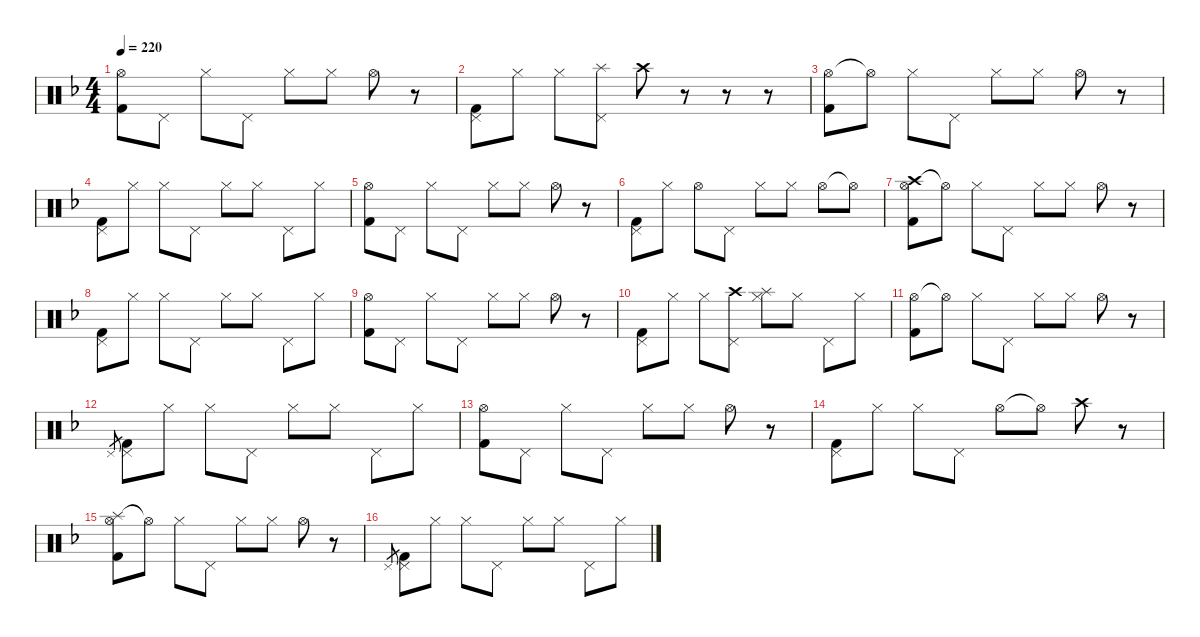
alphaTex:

\hideDynamics
\bracketExtendMode nobrackets
\singleTrackTrackNamePolicy hidden
\multiTrackTrackNamePolicy hidden
\firstSystemTrackNameMode fullname
\firstSystemTrackNameOrientation horizontal
\otherSystemsTrackNameOrientation horizontal
\track ("Drumkit" "Drums") {instrument percussion}
\staff {score}
\articulation defaults
\ts (4 4)
\tempo 220
\clef neutral
\ks dminor
("Hi-Hat (open)"{acc forcenatural} "Kick (hit) 2"{acc forcenatural}).8{dy mp beam Down} "Pedal Hi-Hat (hit)"{acc forcenatural}.8{beam Down} "Hi-Hat (closed)"{acc forcenatural}.8{dy p beam Down} "Pedal Hi-Hat (hit)"{acc forcenatural}.8{beam Down} "Hi-Hat (closed)"{acc forcenatural}.8{dy mp beam Down} "Hi-Hat (closed)"{acc forcenatural}.8{beam Down} "Hi-Hat (open)"{acc forcenatural}.8{beam Down} r.8{beam Down} |
("Pedal Hi-Hat (hit)"{acc forcenatural} "Kick (hit) 2"{acc forcenatural}).8{dy p beam Down} "Hi-Hat (closed)"{acc forcenatural}.8{beam Down} "Hi-Hat (closed)"{acc forcenatural}.8{dy mp beam Down} ("Splash (hit)"{acc forcenatural} "Pedal Hi-Hat (hit)"{acc forcenatural}).8{dy mf beam Down} "Crash high (hit)"{acc forcenatural}.8{dy mp beam Down} r.8{beam Down} r.8{beam Down} r.8{beam Down} |
("Hi-Hat (open)"{acc forcenatural} "Kick (hit) 2"{acc forcenatural}).8{beam Down} "Hi-Hat (open)"{t acc forcenatural}.8{beam Down} "Hi-Hat (closed)"{acc forcenatural}.8{dy p beam Down} "Pedal Hi-Hat (hit)"{acc forcenatural}.8{beam Down} "Hi-Hat (closed)"{acc forcenatural}.8{dy mp beam Down} "Hi-Hat (closed)"{acc forcenatural}.8{beam Down} "Hi-Hat (open)"{acc forcenatural}.8{beam Down} r.8{beam Down} |
("Pedal Hi-Hat (hit)"{acc forcenatural} "Kick (hit) 2"{acc forcenatural}).8{dy p beam Down} "Hi-Hat (closed)"{acc forcenatural}.8{beam Down} "Hi-Hat (closed)"{acc forcenatural}.8{dy mp beam Down} "Pedal Hi-Hat (hit)"{acc forcenatural}.8{dy mf beam Down} "Hi-Hat (closed)"{acc forcenatural}.8{dy mp beam Down} "Hi-Hat (closed)"{acc forcenatural}.8{beam Down} "Pedal Hi-Hat (hit)"{acc forcenatural}.8{dy p beam Down} "Hi-Hat (closed)"{acc forcenatural}.8{beam Down} |
("Hi-Hat (open)"{acc forcenatural} "Kick (hit) 2"{acc forcenatural}).8{dy mp beam Down} "Pedal Hi-Hat (hit)"{acc forcenatural}.8{beam Down} "Hi-Hat (closed)"{acc forcenatural}.8{dy p beam Down} "Pedal Hi-Hat (hit)"{acc forcenatural}.8{beam Down} "Hi-Hat (closed)"{acc forcenatural}.8{dy mp beam Down} "Hi-Hat (closed)"{acc forcenatural}.8{beam Down} "Hi-Hat (open)"{acc forcenatural}.8{beam Down} r.8{beam Down} |
("Pedal Hi-Hat (hit)"{acc forcenatural} "Kick (hit) 2"{acc forcenatural}).8{dy p beam Down} "Hi-Hat (closed)"{acc forcenatural}.8{beam Down} "Hi-Hat (open)"{acc forcenatural}.8{dy mp beam Down} "Pedal Hi-Hat (hit)"{acc forcenatural}.8{dy f beam Down} "Hi-Hat (closed)"{acc forcenatural}.8{dy mp beam Down} "Hi-Hat (closed)"{acc forcenatural}.8{beam Down} "Hi-Hat (open)"{acc forcenatural}.8{dy p beam Down} "Hi-Hat (open)"{t acc forcenatural}.8{beam Down} |
("Crash high (hit)"{acc forcenatural} "Hi-Hat (open)"{acc forcenatural} "Kick (hit) 2"{acc forcenatural}).8{dy mp beam Down} "Hi-Hat (open)"{t acc forcenatural}.8{beam Down} "Hi-Hat (closed)"{acc forcenatural}.8{dy p beam Down} "Pedal Hi-Hat (hit)"{acc forcenatural}.8{beam Down} "Hi-Hat (closed)"{acc forcenatural}.8{dy mp beam Down} "Hi-Hat (closed)"{acc forcenatural}.8{beam Down} "Hi-Hat (open)"{acc forcenatural}.8{beam Down} r.8{beam Down} |
("Pedal Hi-Hat (hit)"{acc forcenatural} "Kick (hit) 2"{acc forcenatural}).8{dy p beam Down} "Hi-Hat (closed)"{acc forcenatural}.8{beam Down} "Hi-Hat (closed)"{acc forcenatural}.8{dy mp beam Down} "Pedal Hi-Hat (hit)"{acc forcenatural}.8{dy mf beam Down} "Hi-Hat (closed)"{acc forcenatural}.8{dy mp beam Down} "Hi-Hat (closed)"{acc forcenatural}.8{beam Down} "Pedal Hi-Hat (hit)"{acc forcenatural}.8{dy p beam Down} "Hi-Hat (closed)"{acc forcenatural}.8{beam Down} |
("Hi-Hat (open)"{acc forcenatural} "Kick (hit) 2"{acc forcenatural}).8{dy mp beam Down} "Pedal Hi-Hat (hit)"{acc forcenatural}.8{beam Down} "Hi-Hat (closed)"{acc forcenatural}.8{dy p beam Down} "Pedal Hi-Hat (hit)"{acc forcenatural}.8{beam Down} "Hi-Hat (closed)"{acc forcenatural}.8{dy mp beam Down} "Hi-Hat (closed)"{acc forcenatural}.8{beam Down} "Hi-Hat (open)"{acc forcenatural}.8{beam Down} r.8{beam Down} |
("Pedal Hi-Hat (hit)"{acc forcenatural} "Kick (hit) 2"{acc forcenatural}).8{dy p beam Down} "Hi-Hat (closed)"{acc forcenatural}.8{beam Down} "Hi-Hat (closed)"{acc forcenatural}.8{dy mp beam Down} ("Crash high (hit)"{acc forcenatural} "Pedal Hi-Hat (hit)"{acc forcenatural}).8{beam Down} ("Splash (hit)"{acc forcenatural} "Hi-Hat (closed)"{acc forcenatural}).8{beam Down} "Hi-Hat (closed)"{acc forcenatural}.8{beam Down} "Pedal Hi-Hat (hit)"{acc forcenatural}.8{dy p beam Down} "Hi-Hat (closed)"{acc forcenatural}.8{beam Down} |
("Hi-Hat (open)"{acc forcenatural} "Kick (hit) 2"{acc forcenatural}).8{dy mp beam Down} "Hi-Hat (open)"{t acc forcenatural}.8{beam Down} "Hi-Hat (closed)"{acc forcenatural}.8{dy p beam Down} "Pedal Hi-Hat (hit)"{acc forcenatural}.8{beam Down} "Hi-Hat (closed)"{acc forcenatural}.8{dy mp beam Down} "Hi-Hat (closed)"{acc forcenatural}.8{beam Down} "Hi-Hat (open)"{acc forcenatural}.8{beam Down} r.8{beam Down} |
"Pedal Hi-Hat (hit)"{acc forcenatural}.8{gr dy p beam Up} ("Pedal Hi-Hat (hit)"{acc forcenatural} "Kick (hit) 2"{acc forcenatural}).8{beam Down} "Hi-Hat (closed)"{acc forcenatural}.8{beam Down} "Hi-Hat (closed)"{acc forcenatural}.8{dy mp beam Down} "Pedal Hi-Hat (hit)"{acc forcenatural}.8{dy mf beam Down} "Hi-Hat (closed)"{acc forcenatural}.8{dy mp beam Down} "Hi-Hat (closed)"{acc forcenatural}.8{beam Down} "Pedal Hi-Hat (hit)"{acc forcenatural}.8{dy p beam Down} "Hi-Hat (closed)"{acc forcenatural}.8{beam Down} |
("Hi-Hat (open)"{acc forcenatural} "Kick (hit) 2"{acc forcenatural}).8{dy mp beam Down} "Pedal Hi-Hat (hit)"{acc forcenatural}.8{beam Down} "Hi-Hat (closed)"{acc forcenatural}.8{dy p beam Down} "Pedal Hi-Hat (hit)"{acc forcenatural}.8{beam Down} "Hi-Hat (closed)"{acc forcenatural}.8{dy mp beam Down} "Hi-Hat (closed)"{acc forcenatural}.8{beam Down} "Hi-Hat (open)"{acc forcenatural}.8{beam Down} r.8{beam Down} |
("Pedal Hi-Hat (hit)"{acc forcenatural} "Kick (hit) 2"{acc forcenatural}).8{dy p beam Down} "Hi-Hat (closed)"{acc forcenatural}.8{beam Down} "Hi-Hat (closed)"{acc forcenatural}.8{dy mp beam Down} "Pedal Hi-Hat (hit)"{acc forcenatural}.8{dy mf beam Down} "Hi-Hat (open)"{acc forcenatural}.8{dy mp beam Down} "Hi-Hat (open)"{t acc forcenatural}.8{beam Down} "Crash high (hit)"{acc forcenatural}.8{dy p beam Down} r.8{beam Down} |
("Splash (hit)"{acc forcenatural} "Hi-Hat (open)"{acc forcenatural} "Kick (hit) 2"{acc forcenatural}).8{dy mp beam Down} "Hi-Hat (open)"{t acc forcenatural}.8{beam Down} "Hi-Hat (closed)"{acc forcenatural}.8{dy p beam Down} "Pedal Hi-Hat (hit)"{acc forcenatural}.8{beam Down} "Hi-Hat (closed)"{acc forcenatural}.8{dy mp beam Down} "Hi-Hat (closed)"{acc forcenatural}.8{beam Down} "Hi-Hat (open)"{acc forcenatural}.8{beam Down} r.8{beam Down} |
"Pedal Hi-Hat (hit)"{acc forcenatural}.8{gr dy p beam Up} ("Pedal Hi-Hat (hit)"{acc forcenatural} "Kick (hit) 2"{acc forcenatural}).8{beam Down} "Hi-Hat (closed)"{acc forcenatural}.8{beam Down} "Hi-Hat (closed)"{acc forcenatural}.8{dy mp beam Down} "Pedal Hi-Hat (hit)"{acc forcenatural}.8{dy mf beam Down} "Hi-Hat (closed)"{acc forcenatural}.8{dy mp beam Down} "Hi-Hat (closed)"{acc forcenatural}.8{beam Down} "Pedal Hi-Hat (hit)"{acc forcenatural}.8{dy p beam Down} "Hi-Hat (closed)"{acc forcenatural}.8{beam Down}
